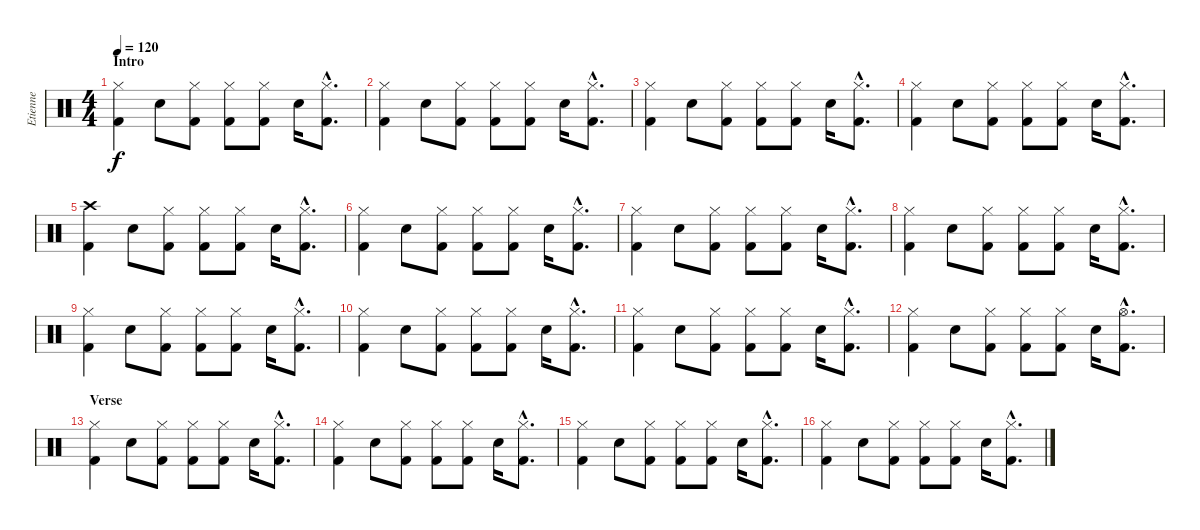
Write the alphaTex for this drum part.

\track ("Etienne" "Etienne") {instrument percussion}
\staff {score}
\articulation defaults
\ts (4 4)
\section ("" "Intro")
\tempo 120
\clef neutral
\ks c
("Hi-Hat (closed)" "Kick (hit) 2").4{dy f} "Snare (hit) 2".8 ("Hi-Hat (closed)" "Kick (hit) 2").8 ("Hi-Hat (closed)" "Kick (hit) 2").8 ("Hi-Hat (closed)" "Kick (hit) 2").8 "Snare (hit) 2".16 ("Hi-Hat (closed)"{hac} "Kick (hit) 2"{hac}).8{d} |
("Hi-Hat (closed)" "Kick (hit) 2").4 "Snare (hit) 2".8 ("Hi-Hat (closed)" "Kick (hit) 2").8 ("Hi-Hat (closed)" "Kick (hit) 2").8 ("Hi-Hat (closed)" "Kick (hit) 2").8 "Snare (hit) 2".16 ("Hi-Hat (closed)"{hac} "Kick (hit) 2"{hac}).8{d} |
("Hi-Hat (closed)" "Kick (hit) 2").4 "Snare (hit) 2".8 ("Hi-Hat (closed)" "Kick (hit) 2").8 ("Hi-Hat (closed)" "Kick (hit) 2").8 ("Hi-Hat (closed)" "Kick (hit) 2").8 "Snare (hit) 2".16 ("Hi-Hat (closed)"{hac} "Kick (hit) 2"{hac}).8{d} |
("Hi-Hat (closed)" "Kick (hit) 2").4 "Snare (hit) 2".8 ("Hi-Hat (closed)" "Kick (hit) 2").8 ("Hi-Hat (closed)" "Kick (hit) 2").8 ("Hi-Hat (closed)" "Kick (hit) 2").8 "Snare (hit) 2".16 ("Hi-Hat (closed)"{hac} "Kick (hit) 2"{hac}).8{d} |
("Crash high (hit)" "Kick (hit) 2").4 "Snare (hit) 2".8 ("Hi-Hat (closed)" "Kick (hit) 2").8 ("Hi-Hat (closed)" "Kick (hit) 2").8 ("Hi-Hat (closed)" "Kick (hit) 2").8 "Snare (hit) 2".16 ("Hi-Hat (closed)"{hac} "Kick (hit) 2"{hac}).8{d} |
("Hi-Hat (closed)" "Kick (hit) 2").4 "Snare (hit) 2".8 ("Hi-Hat (closed)" "Kick (hit) 2").8 ("Hi-Hat (closed)" "Kick (hit) 2").8 ("Hi-Hat (closed)" "Kick (hit) 2").8 "Snare (hit) 2".16 ("Hi-Hat (closed)"{hac} "Kick (hit) 2"{hac}).8{d} |
("Hi-Hat (closed)" "Kick (hit) 2").4 "Snare (hit) 2".8 ("Hi-Hat (closed)" "Kick (hit) 2").8 ("Hi-Hat (closed)" "Kick (hit) 2").8 ("Hi-Hat (closed)" "Kick (hit) 2").8 "Snare (hit) 2".16 ("Hi-Hat (closed)"{hac} "Kick (hit) 2"{hac}).8{d} |
("Hi-Hat (closed)" "Kick (hit) 2").4 "Snare (hit) 2".8 ("Hi-Hat (closed)" "Kick (hit) 2").8 ("Hi-Hat (closed)" "Kick (hit) 2").8 ("Hi-Hat (closed)" "Kick (hit) 2").8 "Snare (hit) 2".16 ("Hi-Hat (closed)"{hac} "Kick (hit) 2"{hac}).8{d} |
("Hi-Hat (closed)" "Kick (hit) 2").4 "Snare (hit) 2".8 ("Hi-Hat (closed)" "Kick (hit) 2").8 ("Hi-Hat (closed)" "Kick (hit) 2").8 ("Hi-Hat (closed)" "Kick (hit) 2").8 "Snare (hit) 2".16 ("Hi-Hat (closed)"{hac} "Kick (hit) 2"{hac}).8{d} |
("Hi-Hat (closed)" "Kick (hit) 2").4 "Snare (hit) 2".8 ("Hi-Hat (closed)" "Kick (hit) 2").8 ("Hi-Hat (closed)" "Kick (hit) 2").8 ("Hi-Hat (closed)" "Kick (hit) 2").8 "Snare (hit) 2".16 ("Hi-Hat (closed)"{hac} "Kick (hit) 2"{hac}).8{d} |
("Hi-Hat (closed)" "Kick (hit) 2").4 "Snare (hit) 2".8 ("Hi-Hat (closed)" "Kick (hit) 2").8 ("Hi-Hat (closed)" "Kick (hit) 2").8 ("Hi-Hat (closed)" "Kick (hit) 2").8 "Snare (hit) 2".16 ("Hi-Hat (closed)"{hac} "Kick (hit) 2"{hac}).8{d} |
("Hi-Hat (closed)" "Kick (hit) 2").4 "Snare (hit) 2".8 ("Hi-Hat (closed)" "Kick (hit) 2").8 ("Hi-Hat (closed)" "Kick (hit) 2").8 ("Hi-Hat (closed)" "Kick (hit) 2").8 "Snare (hit) 2".16 ("Hi-Hat (open)"{hac} "Kick (hit) 2"{hac}).8{d} |
\section ("" "Verse")
("Hi-Hat (closed)" "Kick (hit) 2").4 "Snare (hit) 2".8 ("Hi-Hat (closed)" "Kick (hit) 2").8 ("Hi-Hat (closed)" "Kick (hit) 2").8 ("Hi-Hat (closed)" "Kick (hit) 2").8 "Snare (hit) 2".16 ("Hi-Hat (closed)"{hac} "Kick (hit) 2"{hac}).8{d} |
("Hi-Hat (closed)" "Kick (hit) 2").4 "Snare (hit) 2".8 ("Hi-Hat (closed)" "Kick (hit) 2").8 ("Hi-Hat (closed)" "Kick (hit) 2").8 ("Hi-Hat (closed)" "Kick (hit) 2").8 "Snare (hit) 2".16 ("Hi-Hat (closed)"{hac} "Kick (hit) 2"{hac}).8{d} |
("Hi-Hat (closed)" "Kick (hit) 2").4 "Snare (hit) 2".8 ("Hi-Hat (closed)" "Kick (hit) 2").8 ("Hi-Hat (closed)" "Kick (hit) 2").8 ("Hi-Hat (closed)" "Kick (hit) 2").8 "Snare (hit) 2".16 ("Hi-Hat (closed)"{hac} "Kick (hit) 2"{hac}).8{d} |
("Hi-Hat (closed)" "Kick (hit) 2").4 "Snare (hit) 2".8 ("Hi-Hat (closed)" "Kick (hit) 2").8 ("Hi-Hat (closed)" "Kick (hit) 2").8 ("Hi-Hat (closed)" "Kick (hit) 2").8 "Snare (hit) 2".16 ("Hi-Hat (closed)"{hac} "Kick (hit) 2"{hac}).8{d}
